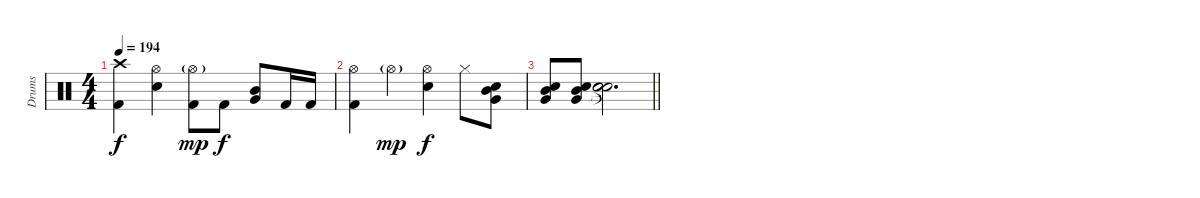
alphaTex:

\track ("Drums" "Drums") {instrument percussion}
\staff {score}
\articulation defaults
\ts (4 4)
\tempo 194
\clef neutral
\ks c
("Crash high (hit)" "Kick (hit) 2").4{dy f} ("Hi-Hat (open)" "Electric Snare (hit)").4 ("Hi-Hat (open)"{g} "Kick (hit) 2").8{dy mp} "Kick (hit) 2".8{dy f} ("Mid Tom (hit)" "Very Low Tom (hit)").8 "Kick (hit) 2".16 "Kick (hit) 2".16 |
("Hi-Hat (open)" "Kick (hit) 2").4 "Hi-Hat (open)"{g}.4{dy mp} ("Hi-Hat (open)" "Electric Snare (hit)").4{dy f} "Hi-Hat (closed)".8 ("Mid Tom (hit)" "Very Low Tom (hit)" "Electric Snare (hit)").8 |
\barLineRight lightlight
("Mid Tom (hit)" "Very Low Tom (hit)" "Electric Snare (hit)").8 ("Mid Tom (hit)" "Very Low Tom (hit)" "Electric Snare (hit)").8 ("Snare (hit)"{t} "Snare (hit)"{t} "Snare (hit)"{t}).2{d}
